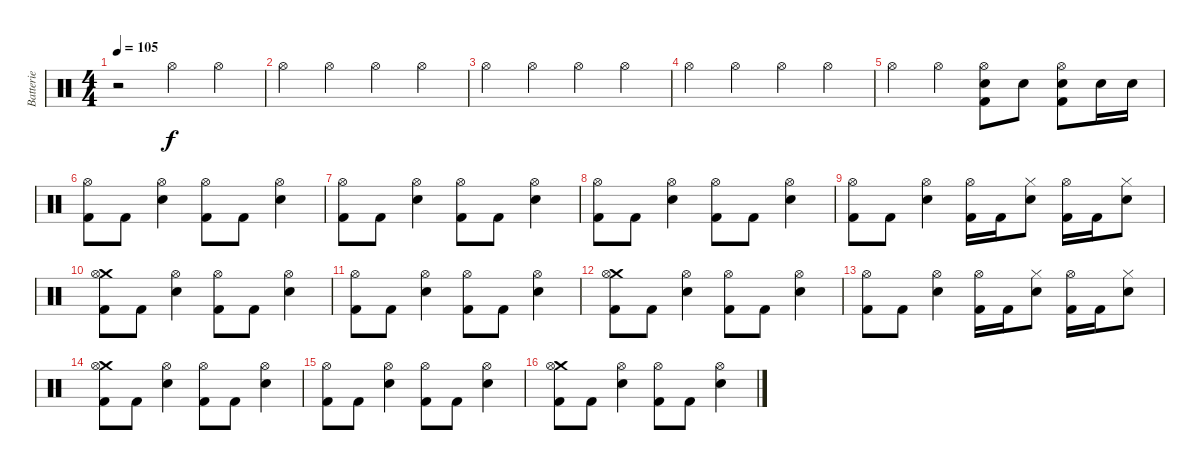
\track ("Batterie" "Batterie") {instrument percussion}
\staff {score}
\articulation defaults
\ts (4 4)
\tempo 105
\clef neutral
\ks c
r.2{dy f} "Hi-Hat (open)".4 "Hi-Hat (open)".4 |
"Hi-Hat (open)".4 "Hi-Hat (open)".4 "Hi-Hat (open)".4 "Hi-Hat (open)".4 |
"Hi-Hat (open)".4 "Hi-Hat (open)".4 "Hi-Hat (open)".4 "Hi-Hat (open)".4 |
"Hi-Hat (open)".4 "Hi-Hat (open)".4 "Hi-Hat (open)".4 "Hi-Hat (open)".4 |
"Hi-Hat (open)".4 "Hi-Hat (open)".4 ("Kick (hit) 2" "Electric Snare (hit)" "Hi-Hat (open)").8 "Electric Snare (hit)".8 ("Kick (hit) 2" "Electric Snare (hit)" "Hi-Hat (open)").8 "Electric Snare (hit)".16 "Electric Snare (hit)".16 |
("Kick (hit) 2" "Hi-Hat (open)").8 "Kick (hit) 2".8 ("Electric Snare (hit)" "Hi-Hat (open)").4 ("Kick (hit) 2" "Hi-Hat (open)").8 "Kick (hit) 2".8 ("Electric Snare (hit)" "Hi-Hat (open)").4 |
("Kick (hit) 2" "Hi-Hat (open)").8 "Kick (hit) 2".8 ("Electric Snare (hit)" "Hi-Hat (open)").4 ("Kick (hit) 2" "Hi-Hat (open)").8 "Kick (hit) 2".8 ("Electric Snare (hit)" "Hi-Hat (open)").4 |
("Kick (hit) 2" "Hi-Hat (open)").8 "Kick (hit) 2".8 ("Electric Snare (hit)" "Hi-Hat (open)").4 ("Kick (hit) 2" "Hi-Hat (open)").8 "Kick (hit) 2".8 ("Electric Snare (hit)" "Hi-Hat (open)").4 |
("Kick (hit) 2" "Hi-Hat (open)").8 "Kick (hit) 2".8 ("Electric Snare (hit)" "Hi-Hat (open)").4 ("Kick (hit) 2" "Hi-Hat (open)").16 "Kick (hit) 2".16 ("Electric Snare (hit)" "Hi-Hat (closed)").8 ("Kick (hit) 2" "Hi-Hat (open)").16 "Kick (hit) 2".16 ("Electric Snare (hit)" "Hi-Hat (closed)").8 |
("Kick (hit) 2" "Crash medium (hit)" "Hi-Hat (open)").8 "Kick (hit) 2".8 ("Electric Snare (hit)" "Hi-Hat (open)").4 ("Kick (hit) 2" "Hi-Hat (open)").8 "Kick (hit) 2".8 ("Electric Snare (hit)" "Hi-Hat (open)").4 |
("Kick (hit) 2" "Hi-Hat (open)").8 "Kick (hit) 2".8 ("Electric Snare (hit)" "Hi-Hat (open)").4 ("Kick (hit) 2" "Hi-Hat (open)").8 "Kick (hit) 2".8 ("Electric Snare (hit)" "Hi-Hat (open)").4 |
("Kick (hit) 2" "Crash medium (hit)" "Hi-Hat (open)").8 "Kick (hit) 2".8 ("Electric Snare (hit)" "Hi-Hat (open)").4 ("Kick (hit) 2" "Hi-Hat (open)").8 "Kick (hit) 2".8 ("Electric Snare (hit)" "Hi-Hat (open)").4 |
("Kick (hit) 2" "Hi-Hat (open)").8 "Kick (hit) 2".8 ("Electric Snare (hit)" "Hi-Hat (open)").4 ("Kick (hit) 2" "Hi-Hat (open)").16 "Kick (hit) 2".16 ("Electric Snare (hit)" "Hi-Hat (closed)").8 ("Kick (hit) 2" "Hi-Hat (open)").16 "Kick (hit) 2".16 ("Electric Snare (hit)" "Hi-Hat (closed)").8 |
("Kick (hit) 2" "Crash medium (hit)" "Hi-Hat (open)").8 "Kick (hit) 2".8 ("Electric Snare (hit)" "Hi-Hat (open)").4 ("Kick (hit) 2" "Hi-Hat (open)").8 "Kick (hit) 2".8 ("Electric Snare (hit)" "Hi-Hat (open)").4 |
("Kick (hit) 2" "Hi-Hat (open)").8 "Kick (hit) 2".8 ("Electric Snare (hit)" "Hi-Hat (open)").4 ("Kick (hit) 2" "Hi-Hat (open)").8 "Kick (hit) 2".8 ("Electric Snare (hit)" "Hi-Hat (open)").4 |
("Kick (hit) 2" "Crash medium (hit)" "Hi-Hat (open)").8 "Kick (hit) 2".8 ("Electric Snare (hit)" "Hi-Hat (open)").4 ("Kick (hit) 2" "Hi-Hat (open)").8 "Kick (hit) 2".8 ("Electric Snare (hit)" "Hi-Hat (open)").4
